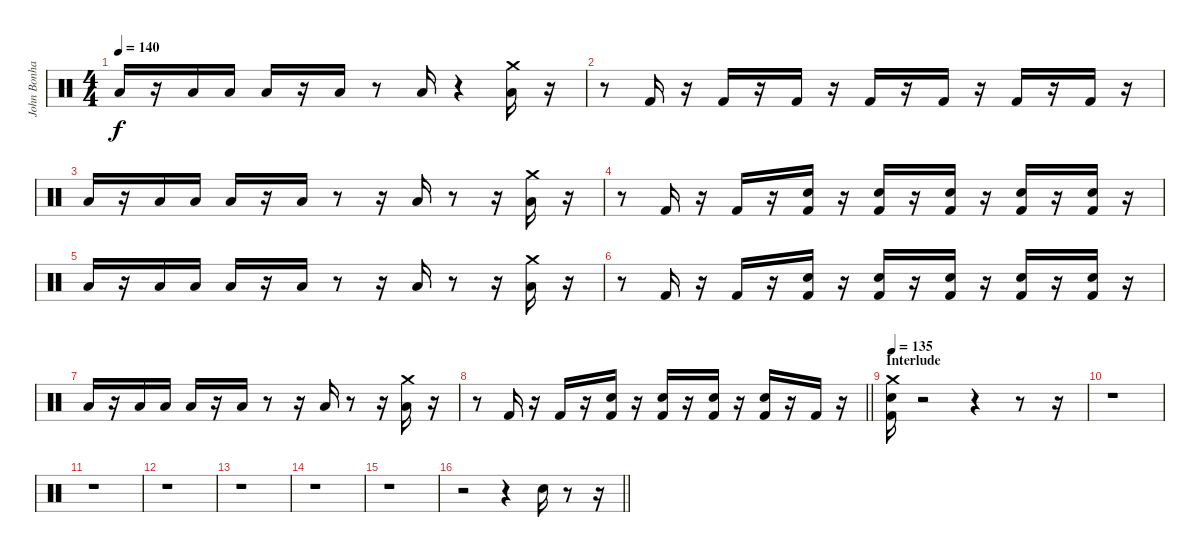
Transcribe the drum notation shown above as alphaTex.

\track ("John Bonham" "John Bonha") {instrument percussion}
\staff {score}
\articulation defaults
\ts (4 4)
\tempo 140
\clef neutral
\ks aminor "Low Floor Tom (hit)".16{dy f}
r.16 "Low Floor Tom (hit)".16 "Low Floor Tom (hit)".16 "Low Floor Tom (hit)".16 r.16 "Low Floor Tom (hit)".16 r.8 "Low Floor Tom (hit)".16 r.4 ("Low Floor Tom (hit)" "Crash medium (hit)").16 r.16 |
r.8 "Kick (hit) 2".16 r.16 "Kick (hit) 2".16 r.16 "Kick (hit) 2".16 r.16 "Kick (hit) 2".16 r.16 "Kick (hit) 2".16 r.16 "Kick (hit) 2".16 r.16 "Kick (hit) 2".16 r.16 |
"Low Floor Tom (hit)".16 r.16 "Low Floor Tom (hit)".16 "Low Floor Tom (hit)".16 "Low Floor Tom (hit)".16 r.16 "Low Floor Tom (hit)".16 r.8 r.16 "Low Floor Tom (hit)".16 r.8 r.16 ("Low Floor Tom (hit)" "Crash medium (hit)").16 r.16 |
r.8 "Kick (hit) 2".16 r.16 "Kick (hit) 2".16 r.16 ("Kick (hit) 2" "Electric Snare (hit)").16 r.16 ("Kick (hit) 2" "Electric Snare (hit)").16 r.16 ("Kick (hit) 2" "Electric Snare (hit)").16 r.16 ("Kick (hit) 2" "Electric Snare (hit)").16 r.16 ("Kick (hit) 2" "Electric Snare (hit)").16 r.16 |
"Low Floor Tom (hit)".16 r.16 "Low Floor Tom (hit)".16 "Low Floor Tom (hit)".16 "Low Floor Tom (hit)".16 r.16 "Low Floor Tom (hit)".16 r.8 r.16 "Low Floor Tom (hit)".16 r.8 r.16 ("Low Floor Tom (hit)" "Crash medium (hit)").16 r.16 |
r.8 "Kick (hit) 2".16 r.16 "Kick (hit) 2".16 r.16 ("Kick (hit) 2" "Electric Snare (hit)").16 r.16 ("Kick (hit) 2" "Electric Snare (hit)").16 r.16 ("Kick (hit) 2" "Electric Snare (hit)").16 r.16 ("Kick (hit) 2" "Electric Snare (hit)").16 r.16 ("Kick (hit) 2" "Electric Snare (hit)").16 r.16 |
"Low Floor Tom (hit)".16 r.16 "Low Floor Tom (hit)".16 "Low Floor Tom (hit)".16 "Low Floor Tom (hit)".16 r.16 "Low Floor Tom (hit)".16 r.8 r.16 "Low Floor Tom (hit)".16 r.8 r.16 ("Low Floor Tom (hit)" "Crash medium (hit)").16 r.16 |
\barLineRight lightlight
r.8 "Kick (hit) 2".16 r.16 "Kick (hit) 2".16 r.16 ("Kick (hit) 2" "Electric Snare (hit)").16 r.16 ("Kick (hit) 2" "Electric Snare (hit)").16 r.16 ("Kick (hit) 2" "Electric Snare (hit)").16 r.16 ("Kick (hit) 2" "Electric Snare (hit)").16 r.16 "Kick (hit) 2".16 r.16 |
\section ("" "Interlude")
\tempo 135
("Kick (hit) 2" "Crash medium (hit)" "Electric Snare (hit)").16 r.2 r.4 r.8 r.16 |
r.1 |
r.1 |
r.1 |
r.1 |
r.1 |
r.1 |
\barLineRight lightlight
r.2 r.4 "Electric Snare (hit)".16 r.8 r.16
